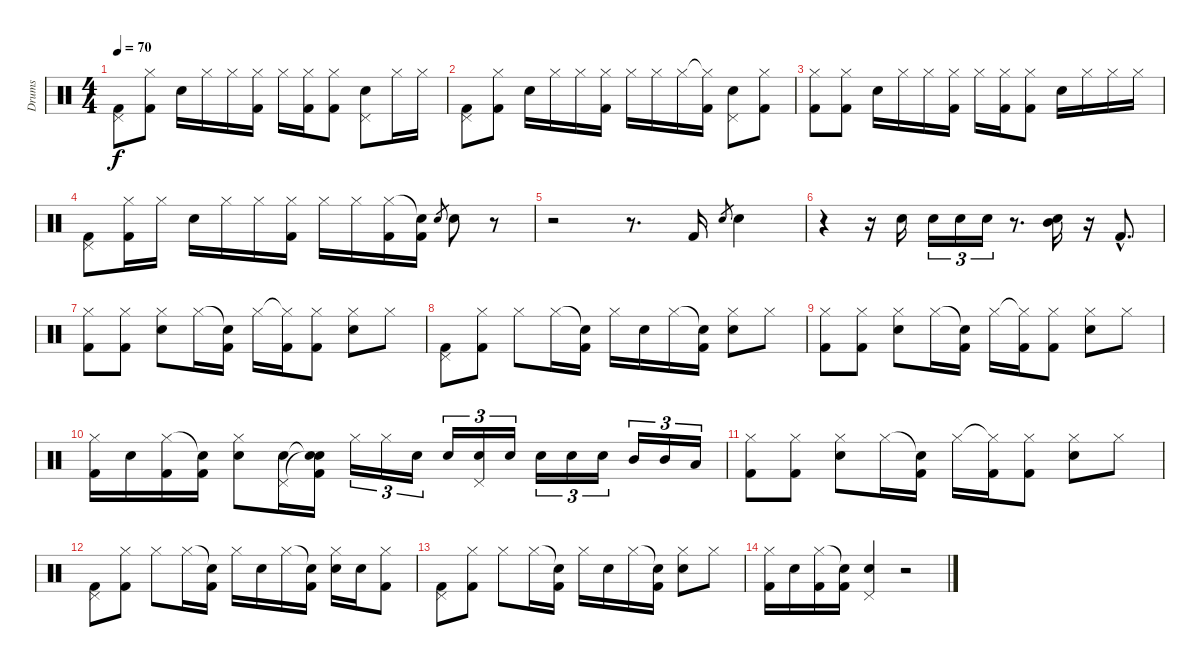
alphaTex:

\track ("Drums" "Drums") {instrument percussion}
\staff {score}
\articulation defaults
\ts (4 4)
\tempo 70
\clef neutral
\ks c
("Pedal Hi-Hat (hit)" "Kick (hit) 2").8{dy f} ("Hi-Hat (closed)" "Kick (hit) 2").8 "Snare (hit) 2".16 "Hi-Hat (closed)".16 "Hi-Hat (closed)".16 ("Hi-Hat (closed)" "Kick (hit) 2").16 "Hi-Hat (closed)".16 ("Hi-Hat (closed)" "Kick (hit) 2").16 ("Hi-Hat (closed)" "Kick (hit) 2").8 ("Pedal Hi-Hat (hit)" "Snare (hit) 2").8 "Hi-Hat (closed)".16 "Hi-Hat (closed)".16 |
("Pedal Hi-Hat (hit)" "Kick (hit) 2").8 ("Hi-Hat (closed)" "Kick (hit) 2").8 "Snare (hit) 2".16 "Hi-Hat (closed)".16 "Hi-Hat (closed)".16 ("Hi-Hat (closed)" "Kick (hit) 2").16 "Hi-Hat (closed)".16 "Hi-Hat (closed)".16 "Hi-Hat (closed)".16 ("Hi-Hat (closed)"{t} "Kick (hit) 2").16 ("Pedal Hi-Hat (hit)" "Snare (hit) 2").8 ("Hi-Hat (closed)" "Kick (hit) 2").8 |
("Hi-Hat (closed)" "Kick (hit) 2").8 ("Hi-Hat (closed)" "Kick (hit) 2").8 "Snare (hit) 2".16 "Hi-Hat (closed)".16 "Hi-Hat (closed)".16 ("Hi-Hat (closed)" "Kick (hit) 2").16 "Hi-Hat (closed)".16 ("Hi-Hat (closed)" "Kick (hit) 2").16 ("Hi-Hat (closed)" "Kick (hit) 2").8 "Snare (hit) 2".16 "Hi-Hat (closed)".16 "Hi-Hat (closed)".16 "Hi-Hat (closed)".16 |
("Pedal Hi-Hat (hit)" "Kick (hit) 2").8 ("Hi-Hat (closed)" "Kick (hit) 2").16 "Hi-Hat (closed)".16 "Snare (hit) 2".16 "Hi-Hat (closed)".16 "Hi-Hat (closed)".16 ("Hi-Hat (closed)" "Kick (hit) 2").16 "Hi-Hat (closed)".16 "Hi-Hat (closed)".16 ("Hi-Hat (closed)" "Kick (hit) 2").16 ("Snare (hit)"{t} "Kick (hit) 2").16 "Snare (hit) 2".8{gr} "Snare (hit) 2".8 r.8 |
r.2 r.8{d} "Kick (hit) 2".16 "Snare (hit) 2".8{gr} "Snare (hit) 2".4 |
r.4 r.16 "Snare (hit) 2".16 "Snare (hit) 2".16{tu (3 2)} "Electric Snare (hit)".16{tu (3 2)} "Snare (hit) 2".16{tu (3 2)} r.8{d} ("Snare (hit) 2" "Mid Tom (hit)").16 r.16 "Kick (hit) 2"{hac}.8{d} |
("Hi-Hat (closed)" "Kick (hit) 2").8 ("Hi-Hat (closed)" "Kick (hit) 2").8 ("Hi-Hat (closed)" "Snare (hit) 2").8 "Hi-Hat (closed)".16 ("Snare (hit)"{t} "Kick (hit) 2").16 "Hi-Hat (closed)".16 ("Hi-Hat (closed)"{t} "Kick (hit) 2").16 ("Hi-Hat (closed)" "Kick (hit) 2").8 ("Hi-Hat (closed)" "Snare (hit) 2").8 "Hi-Hat (closed)".8 |
("Pedal Hi-Hat (hit)" "Kick (hit) 2").8 ("Hi-Hat (closed)" "Kick (hit) 2").8 "Hi-Hat (closed)".8 "Hi-Hat (closed)".16 ("Snare (hit)"{t} "Kick (hit) 2").16 "Hi-Hat (closed)".16 "Snare (hit) 2".16 "Hi-Hat (closed)".16 ("Snare (hit)"{t} "Kick (hit) 2").16 ("Hi-Hat (closed)" "Snare (hit) 2").8 "Hi-Hat (closed)".8 |
("Hi-Hat (closed)" "Kick (hit) 2").8 ("Hi-Hat (closed)" "Kick (hit) 2").8 ("Hi-Hat (closed)" "Snare (hit) 2").8 "Hi-Hat (closed)".16 ("Snare (hit)"{t} "Kick (hit) 2").16 "Hi-Hat (closed)".16 ("Hi-Hat (closed)"{t} "Kick (hit) 2").16 ("Hi-Hat (closed)" "Kick (hit) 2").8 ("Hi-Hat (closed)" "Snare (hit) 2").8 "Hi-Hat (closed)".8 |
("Hi-Hat (closed)" "Kick (hit) 2").16 "Snare (hit) 2".16 ("Hi-Hat (closed)" "Kick (hit) 2").16 ("Snare (hit)"{t} "Kick (hit) 2").16 ("Hi-Hat (closed)" "Snare (hit) 2").8 ("Pedal Hi-Hat (hit)" "Snare (hit) 2").16 ("Snare (hit)"{t} "Snare (hit)"{t} "Kick (hit) 2").16 "Hi-Hat (closed)".16{tu (3 2)} "Hi-Hat (closed)".16{tu (3 2)} "Snare (hit) 2".16{tu (3 2)} "Snare (hit) 2".16{tu (3 2)} ("Pedal Hi-Hat (hit)" "Snare (hit) 2").16{tu (3 2)} "Snare (hit) 2".16{tu (3 2)} "Electric Snare (hit)".16{tu (3 2)} "Electric Snare (hit)".16{tu (3 2)} "Snare (hit) 2".16{tu (3 2)} "Mid Tom (hit)".16{tu (3 2)} "Mid Tom (hit)".16{tu (3 2)} "Low Floor Tom (hit)".16{tu (3 2)} |
("Hi-Hat (closed)" "Kick (hit) 2").8 ("Hi-Hat (closed)" "Kick (hit) 2").8 ("Hi-Hat (closed)" "Snare (hit) 2").8 "Hi-Hat (closed)".16 ("Snare (hit)"{t} "Kick (hit) 2").16 "Hi-Hat (closed)".16 ("Hi-Hat (closed)"{t} "Kick (hit) 2").16 ("Hi-Hat (closed)" "Kick (hit) 2").8 ("Hi-Hat (closed)" "Snare (hit) 2").8 "Hi-Hat (closed)".8 |
("Pedal Hi-Hat (hit)" "Kick (hit) 2").8 ("Hi-Hat (closed)" "Kick (hit) 2").8 "Hi-Hat (closed)".8 "Hi-Hat (closed)".16 ("Snare (hit)"{t} "Kick (hit) 2").16 "Hi-Hat (closed)".16 "Snare (hit) 2".16 "Hi-Hat (closed)".16 ("Snare (hit)"{t} "Kick (hit) 2").16 ("Hi-Hat (closed)" "Snare (hit) 2").16 "Snare (hit) 2".16 ("Hi-Hat (closed)" "Kick (hit) 2").8 |
("Pedal Hi-Hat (hit)" "Kick (hit) 2").8 ("Hi-Hat (closed)" "Kick (hit) 2").8 "Hi-Hat (closed)".8 "Hi-Hat (closed)".16 ("Snare (hit)"{t} "Kick (hit) 2").16 "Hi-Hat (closed)".16 "Snare (hit) 2".16 "Hi-Hat (closed)".16 ("Snare (hit)"{t} "Kick (hit) 2").16 ("Hi-Hat (closed)" "Snare (hit) 2").8 "Hi-Hat (closed)".8 |
("Hi-Hat (closed)" "Kick (hit) 2").16 "Snare (hit) 2".16 ("Hi-Hat (closed)" "Kick (hit) 2").16 ("Snare (hit)"{t} "Kick (hit) 2").16 ("Pedal Hi-Hat (hit)" "Snare (hit) 2").4 r.2
